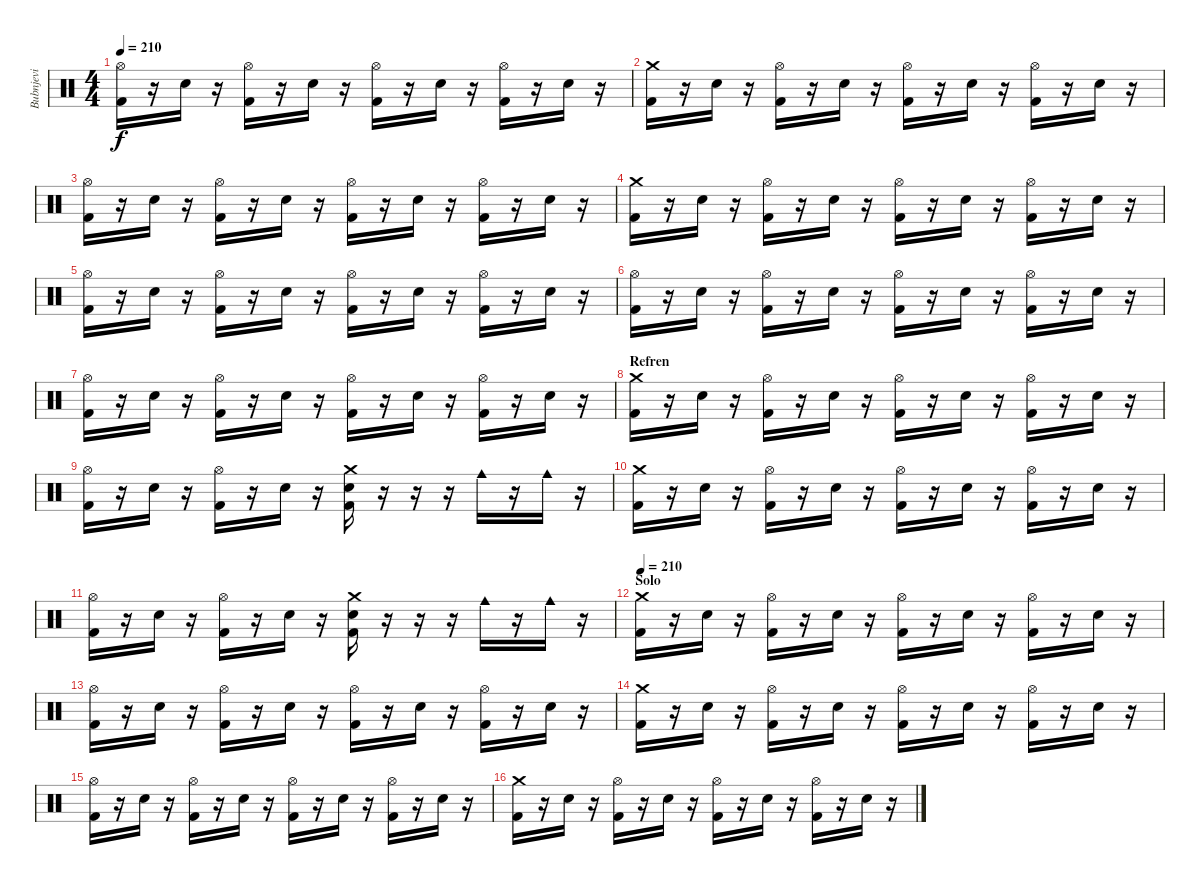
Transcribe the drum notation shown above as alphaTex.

\track ("Bubnjevi" "Bubnjevi") {instrument percussion}
\staff {score}
\articulation defaults
\ts (4 4)
\tempo 210
\clef neutral
\ks c
("Hi-Hat (open)" "Kick (hit) 2").16{dy f} r.16 "Snare (hit) 2".16 r.16 ("Hi-Hat (open)" "Kick (hit) 2").16 r.16 "Snare (hit) 2".16 r.16 ("Hi-Hat (open)" "Kick (hit) 2").16 r.16 "Snare (hit) 2".16 r.16 ("Hi-Hat (open)" "Kick (hit) 2").16 r.16 "Snare (hit) 2".16 r.16 |
("Kick (hit) 2" "Crash medium (hit)").16 r.16 "Snare (hit) 2".16 r.16 ("Hi-Hat (open)" "Kick (hit) 2").16 r.16 "Snare (hit) 2".16 r.16 ("Hi-Hat (open)" "Kick (hit) 2").16 r.16 "Snare (hit) 2".16 r.16 ("Hi-Hat (open)" "Kick (hit) 2").16 r.16 "Snare (hit) 2".16 r.16 |
("Hi-Hat (open)" "Kick (hit) 2").16 r.16 "Snare (hit) 2".16 r.16 ("Hi-Hat (open)" "Kick (hit) 2").16 r.16 "Snare (hit) 2".16 r.16 ("Hi-Hat (open)" "Kick (hit) 2").16 r.16 "Snare (hit) 2".16 r.16 ("Hi-Hat (open)" "Kick (hit) 2").16 r.16 "Snare (hit) 2".16 r.16 |
("Kick (hit) 2" "Crash medium (hit)").16 r.16 "Snare (hit) 2".16 r.16 ("Hi-Hat (open)" "Kick (hit) 2").16 r.16 "Snare (hit) 2".16 r.16 ("Hi-Hat (open)" "Kick (hit) 2").16 r.16 "Snare (hit) 2".16 r.16 ("Hi-Hat (open)" "Kick (hit) 2").16 r.16 "Snare (hit) 2".16 r.16 |
("Hi-Hat (open)" "Kick (hit) 2").16 r.16 "Snare (hit) 2".16 r.16 ("Hi-Hat (open)" "Kick (hit) 2").16 r.16 "Snare (hit) 2".16 r.16 ("Hi-Hat (open)" "Kick (hit) 2").16 r.16 "Snare (hit) 2".16 r.16 ("Hi-Hat (open)" "Kick (hit) 2").16 r.16 "Snare (hit) 2".16 r.16 |
("Hi-Hat (open)" "Kick (hit) 2").16 r.16 "Snare (hit) 2".16 r.16 ("Hi-Hat (open)" "Kick (hit) 2").16 r.16 "Snare (hit) 2".16 r.16 ("Hi-Hat (open)" "Kick (hit) 2").16 r.16 "Snare (hit) 2".16 r.16 ("Hi-Hat (open)" "Kick (hit) 2").16 r.16 "Snare (hit) 2".16 r.16 |
("Hi-Hat (open)" "Kick (hit) 2").16 r.16 "Snare (hit) 2".16 r.16 ("Hi-Hat (open)" "Kick (hit) 2").16 r.16 "Snare (hit) 2".16 r.16 ("Hi-Hat (open)" "Kick (hit) 2").16 r.16 "Snare (hit) 2".16 r.16 ("Hi-Hat (open)" "Kick (hit) 2").16 r.16 "Snare (hit) 2".16 r.16 |
\section ("" "Refren")
("Kick (hit) 2" "Crash medium (hit)").16 r.16 "Snare (hit) 2".16 r.16 ("Hi-Hat (open)" "Kick (hit) 2").16 r.16 "Snare (hit) 2".16 r.16 ("Hi-Hat (open)" "Kick (hit) 2").16 r.16 "Snare (hit) 2".16 r.16 ("Hi-Hat (open)" "Kick (hit) 2").16 r.16 "Snare (hit) 2".16 r.16 |
("Hi-Hat (open)" "Kick (hit) 2").16 r.16 "Snare (hit) 2".16 r.16 ("Hi-Hat (open)" "Kick (hit) 2").16 r.16 "Snare (hit) 2".16 r.16 ("Kick (hit) 2" "Snare (hit) 2" "Crash medium (hit)").16 r.16 r.16 r.16 "Cowbell medium (hit)".16 r.16 "Cowbell medium (hit)".16 r.16 |
("Kick (hit) 2" "Crash medium (hit)").16 r.16 "Snare (hit) 2".16 r.16 ("Hi-Hat (open)" "Kick (hit) 2").16 r.16 "Snare (hit) 2".16 r.16 ("Hi-Hat (open)" "Kick (hit) 2").16 r.16 "Snare (hit) 2".16 r.16 ("Hi-Hat (open)" "Kick (hit) 2").16 r.16 "Snare (hit) 2".16 r.16 |
("Hi-Hat (open)" "Kick (hit) 2").16 r.16 "Snare (hit) 2".16 r.16 ("Hi-Hat (open)" "Kick (hit) 2").16 r.16 "Snare (hit) 2".16 r.16 ("Kick (hit) 2" "Snare (hit) 2" "Crash medium (hit)").16 r.16 r.16 r.16 "Cowbell medium (hit)".16 r.16 "Cowbell medium (hit)".16 r.16 |
\section ("" "Solo")
\tempo 210
("Kick (hit) 2" "Crash medium (hit)").16 r.16 "Snare (hit) 2".16 r.16 ("Hi-Hat (open)" "Kick (hit) 2").16 r.16 "Snare (hit) 2".16 r.16 ("Hi-Hat (open)" "Kick (hit) 2").16 r.16 "Snare (hit) 2".16 r.16 ("Hi-Hat (open)" "Kick (hit) 2").16 r.16 "Snare (hit) 2".16 r.16 |
("Hi-Hat (open)" "Kick (hit) 2").16 r.16 "Snare (hit) 2".16 r.16 ("Hi-Hat (open)" "Kick (hit) 2").16 r.16 "Snare (hit) 2".16 r.16 ("Hi-Hat (open)" "Kick (hit) 2").16 r.16 "Snare (hit) 2".16 r.16 ("Hi-Hat (open)" "Kick (hit) 2").16 r.16 "Snare (hit) 2".16 r.16 |
("Kick (hit) 2" "Crash medium (hit)").16 r.16 "Snare (hit) 2".16 r.16 ("Hi-Hat (open)" "Kick (hit) 2").16 r.16 "Snare (hit) 2".16 r.16 ("Hi-Hat (open)" "Kick (hit) 2").16 r.16 "Snare (hit) 2".16 r.16 ("Hi-Hat (open)" "Kick (hit) 2").16 r.16 "Snare (hit) 2".16 r.16 |
("Hi-Hat (open)" "Kick (hit) 2").16 r.16 "Snare (hit) 2".16 r.16 ("Hi-Hat (open)" "Kick (hit) 2").16 r.16 "Snare (hit) 2".16 r.16 ("Hi-Hat (open)" "Kick (hit) 2").16 r.16 "Snare (hit) 2".16 r.16 ("Hi-Hat (open)" "Kick (hit) 2").16 r.16 "Snare (hit) 2".16 r.16 |
("Kick (hit) 2" "Crash medium (hit)").16 r.16 "Snare (hit) 2".16 r.16 ("Hi-Hat (open)" "Kick (hit) 2").16 r.16 "Snare (hit) 2".16 r.16 ("Hi-Hat (open)" "Kick (hit) 2").16 r.16 "Snare (hit) 2".16 r.16 ("Hi-Hat (open)" "Kick (hit) 2").16 r.16 "Snare (hit) 2".16 r.16
